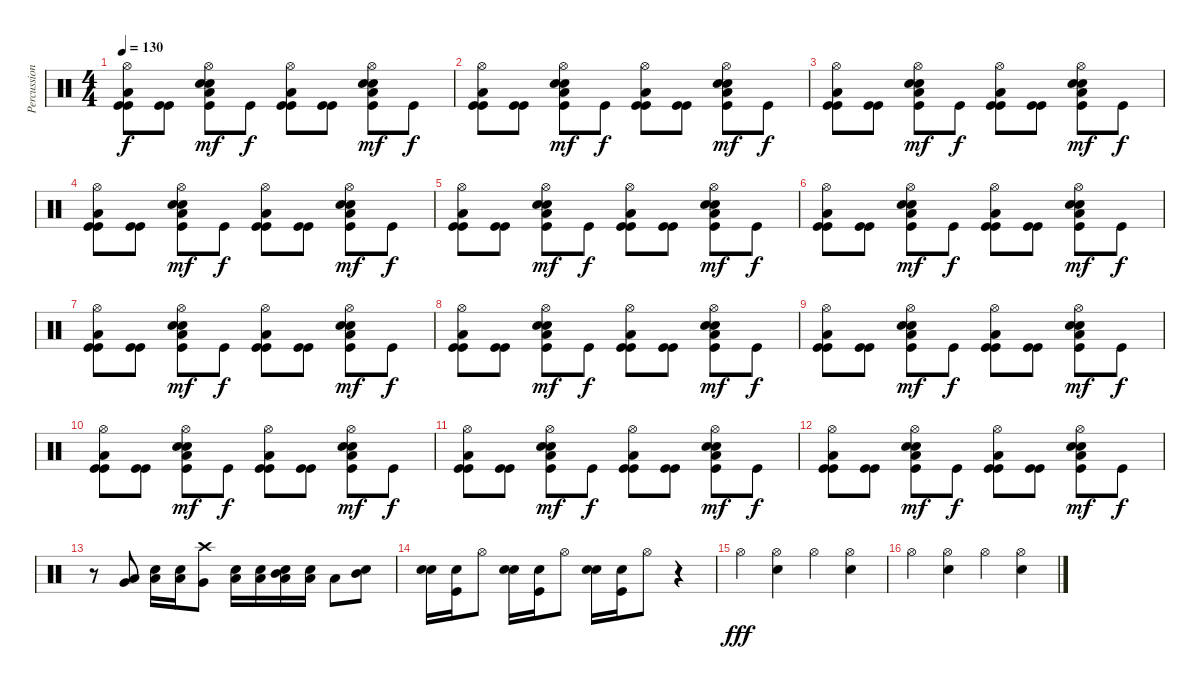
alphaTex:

\track ("Percussion" "Percussion") {instrument percussion}
\staff {score}
\articulation defaults
\ts (4 4)
\tempo 130
\clef neutral
\ks c
("Hi-Hat (open)" "Kick (hit)" "Kick (hit)" "Low Floor Tom (hit)").8{dy f} ("Kick (hit)" "Kick (hit)").8 ("Hi-Hat (open)" "Snare (hit) 2" "Snare (hit) 2" "Kick (hit)" "Low Floor Tom (hit)").8{dy mf} "Kick (hit)".8{dy f} ("Hi-Hat (open)" "Kick (hit)" "Kick (hit)" "Low Floor Tom (hit)").8 ("Kick (hit)" "Kick (hit)").8 ("Hi-Hat (open)" "Snare (hit) 2" "Snare (hit) 2" "Kick (hit)" "Low Floor Tom (hit)").8{dy mf} "Kick (hit)".8{dy f} |
("Hi-Hat (open)" "Kick (hit)" "Kick (hit)" "Low Floor Tom (hit)").8 ("Kick (hit)" "Kick (hit)").8 ("Hi-Hat (open)" "Snare (hit) 2" "Snare (hit) 2" "Kick (hit)" "Low Floor Tom (hit)").8{dy mf} "Kick (hit)".8{dy f} ("Hi-Hat (open)" "Kick (hit)" "Kick (hit)" "Low Floor Tom (hit)").8 ("Kick (hit)" "Kick (hit)").8 ("Hi-Hat (open)" "Snare (hit) 2" "Snare (hit) 2" "Kick (hit)" "Low Floor Tom (hit)").8{dy mf} "Kick (hit)".8{dy f} |
("Hi-Hat (open)" "Kick (hit)" "Kick (hit)" "Low Floor Tom (hit)").8 ("Kick (hit)" "Kick (hit)").8 ("Hi-Hat (open)" "Snare (hit) 2" "Snare (hit) 2" "Kick (hit)" "Low Floor Tom (hit)").8{dy mf} "Kick (hit)".8{dy f} ("Hi-Hat (open)" "Kick (hit)" "Kick (hit)" "Low Floor Tom (hit)").8 ("Kick (hit)" "Kick (hit)").8 ("Hi-Hat (open)" "Snare (hit) 2" "Snare (hit) 2" "Kick (hit)" "Low Floor Tom (hit)").8{dy mf} "Kick (hit)".8{dy f} |
("Hi-Hat (open)" "Kick (hit)" "Kick (hit)" "Low Floor Tom (hit)").8 ("Kick (hit)" "Kick (hit)").8 ("Hi-Hat (open)" "Snare (hit) 2" "Snare (hit) 2" "Kick (hit)" "Low Floor Tom (hit)").8{dy mf} "Kick (hit)".8{dy f} ("Hi-Hat (open)" "Kick (hit)" "Kick (hit)" "Low Floor Tom (hit)").8 ("Kick (hit)" "Kick (hit)").8 ("Hi-Hat (open)" "Snare (hit) 2" "Snare (hit) 2" "Kick (hit)" "Low Floor Tom (hit)").8{dy mf} "Kick (hit)".8{dy f} |
("Hi-Hat (open)" "Kick (hit)" "Kick (hit)" "Low Floor Tom (hit)").8 ("Kick (hit)" "Kick (hit)").8 ("Hi-Hat (open)" "Snare (hit) 2" "Snare (hit) 2" "Kick (hit)" "Low Floor Tom (hit)").8{dy mf} "Kick (hit)".8{dy f} ("Hi-Hat (open)" "Kick (hit)" "Kick (hit)" "Low Floor Tom (hit)").8 ("Kick (hit)" "Kick (hit)").8 ("Hi-Hat (open)" "Snare (hit) 2" "Snare (hit) 2" "Kick (hit)" "Low Floor Tom (hit)").8{dy mf} "Kick (hit)".8{dy f} |
("Hi-Hat (open)" "Kick (hit)" "Kick (hit)" "Low Floor Tom (hit)").8 ("Kick (hit)" "Kick (hit)").8 ("Hi-Hat (open)" "Snare (hit) 2" "Snare (hit) 2" "Kick (hit)" "Low Floor Tom (hit)").8{dy mf} "Kick (hit)".8{dy f} ("Hi-Hat (open)" "Kick (hit)" "Kick (hit)" "Low Floor Tom (hit)").8 ("Kick (hit)" "Kick (hit)").8 ("Hi-Hat (open)" "Snare (hit) 2" "Snare (hit) 2" "Kick (hit)" "Low Floor Tom (hit)").8{dy mf} "Kick (hit)".8{dy f} |
("Hi-Hat (open)" "Kick (hit)" "Kick (hit)" "Low Floor Tom (hit)").8 ("Kick (hit)" "Kick (hit)").8 ("Hi-Hat (open)" "Snare (hit) 2" "Snare (hit) 2" "Kick (hit)" "Low Floor Tom (hit)").8{dy mf} "Kick (hit)".8{dy f} ("Hi-Hat (open)" "Kick (hit)" "Kick (hit)" "Low Floor Tom (hit)").8 ("Kick (hit)" "Kick (hit)").8 ("Hi-Hat (open)" "Snare (hit) 2" "Snare (hit) 2" "Kick (hit)" "Low Floor Tom (hit)").8{dy mf} "Kick (hit)".8{dy f} |
("Hi-Hat (open)" "Kick (hit)" "Kick (hit)" "Low Floor Tom (hit)").8 ("Kick (hit)" "Kick (hit)").8 ("Hi-Hat (open)" "Snare (hit) 2" "Snare (hit) 2" "Kick (hit)" "Low Floor Tom (hit)").8{dy mf} "Kick (hit)".8{dy f} ("Hi-Hat (open)" "Kick (hit)" "Kick (hit)" "Low Floor Tom (hit)").8 ("Kick (hit)" "Kick (hit)").8 ("Hi-Hat (open)" "Snare (hit) 2" "Snare (hit) 2" "Kick (hit)" "Low Floor Tom (hit)").8{dy mf} "Kick (hit)".8{dy f} |
("Hi-Hat (open)" "Kick (hit)" "Kick (hit)" "Low Floor Tom (hit)").8 ("Kick (hit)" "Kick (hit)").8 ("Hi-Hat (open)" "Snare (hit) 2" "Snare (hit) 2" "Kick (hit)" "Low Floor Tom (hit)").8{dy mf} "Kick (hit)".8{dy f} ("Hi-Hat (open)" "Kick (hit)" "Kick (hit)" "Low Floor Tom (hit)").8 ("Kick (hit)" "Kick (hit)").8 ("Hi-Hat (open)" "Snare (hit) 2" "Snare (hit) 2" "Kick (hit)" "Low Floor Tom (hit)").8{dy mf} "Kick (hit)".8{dy f} |
("Hi-Hat (open)" "Kick (hit)" "Kick (hit)" "Low Floor Tom (hit)").8 ("Kick (hit)" "Kick (hit)").8 ("Hi-Hat (open)" "Snare (hit) 2" "Snare (hit) 2" "Kick (hit)" "Low Floor Tom (hit)").8{dy mf} "Kick (hit)".8{dy f} ("Hi-Hat (open)" "Kick (hit)" "Kick (hit)" "Low Floor Tom (hit)").8 ("Kick (hit)" "Kick (hit)").8 ("Hi-Hat (open)" "Snare (hit) 2" "Snare (hit) 2" "Kick (hit)" "Low Floor Tom (hit)").8{dy mf} "Kick (hit)".8{dy f} |
("Hi-Hat (open)" "Kick (hit)" "Kick (hit)" "Low Floor Tom (hit)").8 ("Kick (hit)" "Kick (hit)").8 ("Hi-Hat (open)" "Snare (hit) 2" "Snare (hit) 2" "Kick (hit)" "Low Floor Tom (hit)").8{dy mf} "Kick (hit)".8{dy f} ("Hi-Hat (open)" "Kick (hit)" "Kick (hit)" "Low Floor Tom (hit)").8 ("Kick (hit)" "Kick (hit)").8 ("Hi-Hat (open)" "Snare (hit) 2" "Snare (hit) 2" "Kick (hit)" "Low Floor Tom (hit)").8{dy mf} "Kick (hit)".8{dy f} |
("Hi-Hat (open)" "Kick (hit)" "Kick (hit)" "Low Floor Tom (hit)").8 ("Kick (hit)" "Kick (hit)").8 ("Hi-Hat (open)" "Snare (hit) 2" "Snare (hit) 2" "Kick (hit)" "Low Floor Tom (hit)").8{dy mf} "Kick (hit)".8{dy f} ("Hi-Hat (open)" "Kick (hit)" "Kick (hit)" "Low Floor Tom (hit)").8 ("Kick (hit)" "Kick (hit)").8 ("Hi-Hat (open)" "Snare (hit) 2" "Snare (hit) 2" "Kick (hit)" "Low Floor Tom (hit)").8{dy mf} "Kick (hit)".8{dy f} |
r.8 ("Low Tom (hit)" "Very Low Tom (hit)").8 ("Low Floor Tom (hit)" "Snare (hit) 2").16 ("Low Floor Tom (hit)" "Snare (hit) 2").16 ("Crash high (hit)" "Very Low Tom (hit)").8 ("Low Floor Tom (hit)" "Snare (hit) 2").16 ("Low Floor Tom (hit)" "Snare (hit) 2").16 ("Mid Tom (hit)" "Low Floor Tom (hit)" "Snare (hit) 2").16 ("Low Floor Tom (hit)" "Snare (hit) 2").16 "Low Tom (hit)".8 ("Mid Tom (hit)" "Snare (hit) 2").8 |
("Snare (hit) 2" "Snare (hit) 2").16 ("Snare (hit) 2" "Kick (hit)").16 "Hi-Hat (open)".8 ("Snare (hit) 2" "Snare (hit) 2").16 ("Snare (hit) 2" "Kick (hit)").16 "Hi-Hat (open)".8 ("Snare (hit) 2" "Snare (hit) 2").16 ("Snare (hit) 2" "Kick (hit)").16 "Hi-Hat (open)".8 r.4 |
"Hi-Hat (open)".4{dy fff} ("Hi-Hat (open)" "Snare (hit) 2").4 "Hi-Hat (open)".4 ("Hi-Hat (open)" "Snare (hit) 2").4 |
"Hi-Hat (open)".4 ("Hi-Hat (open)" "Snare (hit) 2").4 "Hi-Hat (open)".4 ("Hi-Hat (open)" "Snare (hit) 2").4
